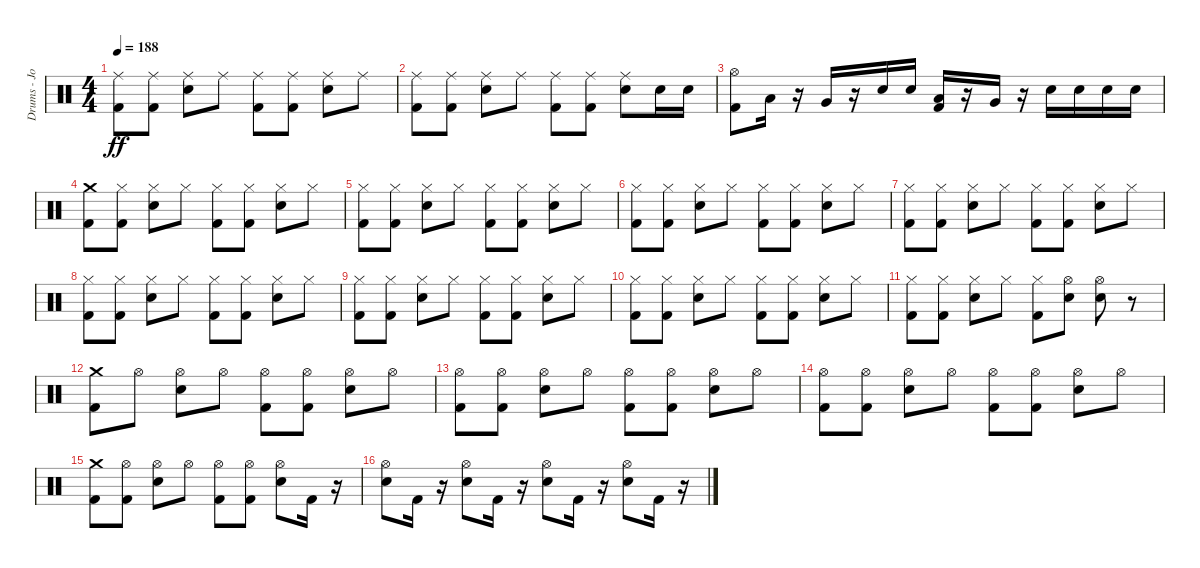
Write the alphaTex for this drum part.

\track ("Drums - Jordan" "Drums - Jo") {instrument percussion}
\staff {score}
\articulation defaults
\ts (4 4)
\tempo 188
\clef neutral
\ks c
("Kick (hit) 2" "Ride (middle)").8{dy ff} ("Kick (hit) 2" "Ride (middle)").8 ("Electric Snare (hit)" "Ride (middle)").8 "Ride (middle)".8 ("Kick (hit) 2" "Ride (middle)").8 ("Kick (hit) 2" "Ride (middle)").8 ("Electric Snare (hit)" "Ride (middle)").8 "Ride (middle)".8 |
("Kick (hit) 2" "Ride (middle)").8 ("Kick (hit) 2" "Ride (middle)").8 ("Electric Snare (hit)" "Ride (middle)").8 "Ride (middle)".8 ("Kick (hit) 2" "Ride (middle)").8 ("Kick (hit) 2" "Ride (middle)").8 ("Electric Snare (hit)" "Ride (middle)").8 "Electric Snare (hit)".16 "Electric Snare (hit)".16 |
("Kick (hit) 2" "Hi-Hat (open)").8 "Low Tom (hit)".16 r.16 "Very Low Tom (hit)".16 r.16 "Electric Snare (hit)".16 "Electric Snare (hit)".16 ("Kick (hit) 2" "Low Tom (hit)").16 r.16 "Very Low Tom (hit)".16 r.16 "Electric Snare (hit)".16 "Electric Snare (hit)".16 "Electric Snare (hit)".16 "Electric Snare (hit)".16 |
("Kick (hit) 2" "Crash medium (hit)").8 ("Kick (hit) 2" "Hi-Hat (closed)").8 ("Electric Snare (hit)" "Hi-Hat (closed)").8 "Hi-Hat (closed)".8 ("Kick (hit) 2" "Hi-Hat (closed)").8 ("Kick (hit) 2" "Hi-Hat (closed)").8 ("Electric Snare (hit)" "Hi-Hat (closed)").8 "Hi-Hat (closed)".8 |
("Kick (hit) 2" "Hi-Hat (closed)").8 ("Kick (hit) 2" "Hi-Hat (closed)").8 ("Electric Snare (hit)" "Hi-Hat (closed)").8 "Hi-Hat (closed)".8 ("Kick (hit) 2" "Hi-Hat (closed)").8 ("Kick (hit) 2" "Hi-Hat (closed)").8 ("Electric Snare (hit)" "Hi-Hat (closed)").8 "Hi-Hat (closed)".8 |
("Kick (hit) 2" "Hi-Hat (closed)").8 ("Kick (hit) 2" "Hi-Hat (closed)").8 ("Electric Snare (hit)" "Hi-Hat (closed)").8 "Hi-Hat (closed)".8 ("Kick (hit) 2" "Hi-Hat (closed)").8 ("Kick (hit) 2" "Hi-Hat (closed)").8 ("Electric Snare (hit)" "Hi-Hat (closed)").8 "Hi-Hat (closed)".8 |
("Kick (hit) 2" "Hi-Hat (closed)").8 ("Kick (hit) 2" "Hi-Hat (closed)").8 ("Electric Snare (hit)" "Hi-Hat (closed)").8 "Hi-Hat (closed)".8 ("Kick (hit) 2" "Hi-Hat (closed)").8 ("Kick (hit) 2" "Hi-Hat (closed)").8 ("Electric Snare (hit)" "Hi-Hat (closed)").8 "Hi-Hat (closed)".8 |
("Kick (hit) 2" "Hi-Hat (closed)").8 ("Kick (hit) 2" "Hi-Hat (closed)").8 ("Electric Snare (hit)" "Hi-Hat (closed)").8 "Hi-Hat (closed)".8 ("Kick (hit) 2" "Hi-Hat (closed)").8 ("Kick (hit) 2" "Hi-Hat (closed)").8 ("Electric Snare (hit)" "Hi-Hat (closed)").8 "Hi-Hat (closed)".8 |
("Kick (hit) 2" "Hi-Hat (closed)").8 ("Kick (hit) 2" "Hi-Hat (closed)").8 ("Electric Snare (hit)" "Hi-Hat (closed)").8 "Hi-Hat (closed)".8 ("Kick (hit) 2" "Hi-Hat (closed)").8 ("Kick (hit) 2" "Hi-Hat (closed)").8 ("Electric Snare (hit)" "Hi-Hat (closed)").8 "Hi-Hat (closed)".8 |
("Kick (hit) 2" "Hi-Hat (closed)").8 ("Kick (hit) 2" "Hi-Hat (closed)").8 ("Electric Snare (hit)" "Hi-Hat (closed)").8 "Hi-Hat (closed)".8 ("Kick (hit) 2" "Hi-Hat (closed)").8 ("Kick (hit) 2" "Hi-Hat (closed)").8 ("Electric Snare (hit)" "Hi-Hat (closed)").8 "Hi-Hat (closed)".8 |
("Kick (hit) 2" "Hi-Hat (closed)").8 ("Kick (hit) 2" "Hi-Hat (closed)").8 ("Electric Snare (hit)" "Hi-Hat (closed)").8 "Hi-Hat (closed)".8 ("Hi-Hat (closed)" "Kick (hit) 2").8 ("Electric Snare (hit)" "Hi-Hat (open)").8 ("Electric Snare (hit)" "Hi-Hat (open)").8 r.8 |
("Kick (hit) 2" "Crash medium (hit)").8 "Hi-Hat (open)".8 ("Electric Snare (hit)" "Hi-Hat (open)").8 "Hi-Hat (open)".8 ("Kick (hit) 2" "Hi-Hat (open)").8 ("Kick (hit) 2" "Hi-Hat (open)").8 ("Electric Snare (hit)" "Hi-Hat (open)").8 "Hi-Hat (open)".8 |
("Kick (hit) 2" "Hi-Hat (open)").8 ("Kick (hit) 2" "Hi-Hat (open)").8 ("Electric Snare (hit)" "Hi-Hat (open)").8 "Hi-Hat (open)".8 ("Kick (hit) 2" "Hi-Hat (open)").8 ("Kick (hit) 2" "Hi-Hat (open)").8 ("Electric Snare (hit)" "Hi-Hat (open)").8 "Hi-Hat (open)".8 |
("Kick (hit) 2" "Hi-Hat (open)").8 ("Kick (hit) 2" "Hi-Hat (open)").8 ("Electric Snare (hit)" "Hi-Hat (open)").8 "Hi-Hat (open)".8 ("Kick (hit) 2" "Hi-Hat (open)").8 ("Kick (hit) 2" "Hi-Hat (open)").8 ("Electric Snare (hit)" "Hi-Hat (open)").8 "Hi-Hat (open)".8 |
("Kick (hit) 2" "Crash medium (hit)").8 ("Kick (hit) 2" "Hi-Hat (open)").8 ("Electric Snare (hit)" "Hi-Hat (open)").8 "Hi-Hat (open)".8 ("Kick (hit) 2" "Hi-Hat (open)").8 ("Kick (hit) 2" "Hi-Hat (open)").8 ("Electric Snare (hit)" "Hi-Hat (open)").8 "Kick (hit) 2".16 r.16 |
("Electric Snare (hit)" "Hi-Hat (open)").8 "Kick (hit) 2".16 r.16 ("Electric Snare (hit)" "Hi-Hat (open)").8 "Kick (hit) 2".16 r.16 ("Electric Snare (hit)" "Hi-Hat (open)").8 "Kick (hit) 2".16 r.16 ("Electric Snare (hit)" "Hi-Hat (open)").8 "Kick (hit) 2".16 r.16
